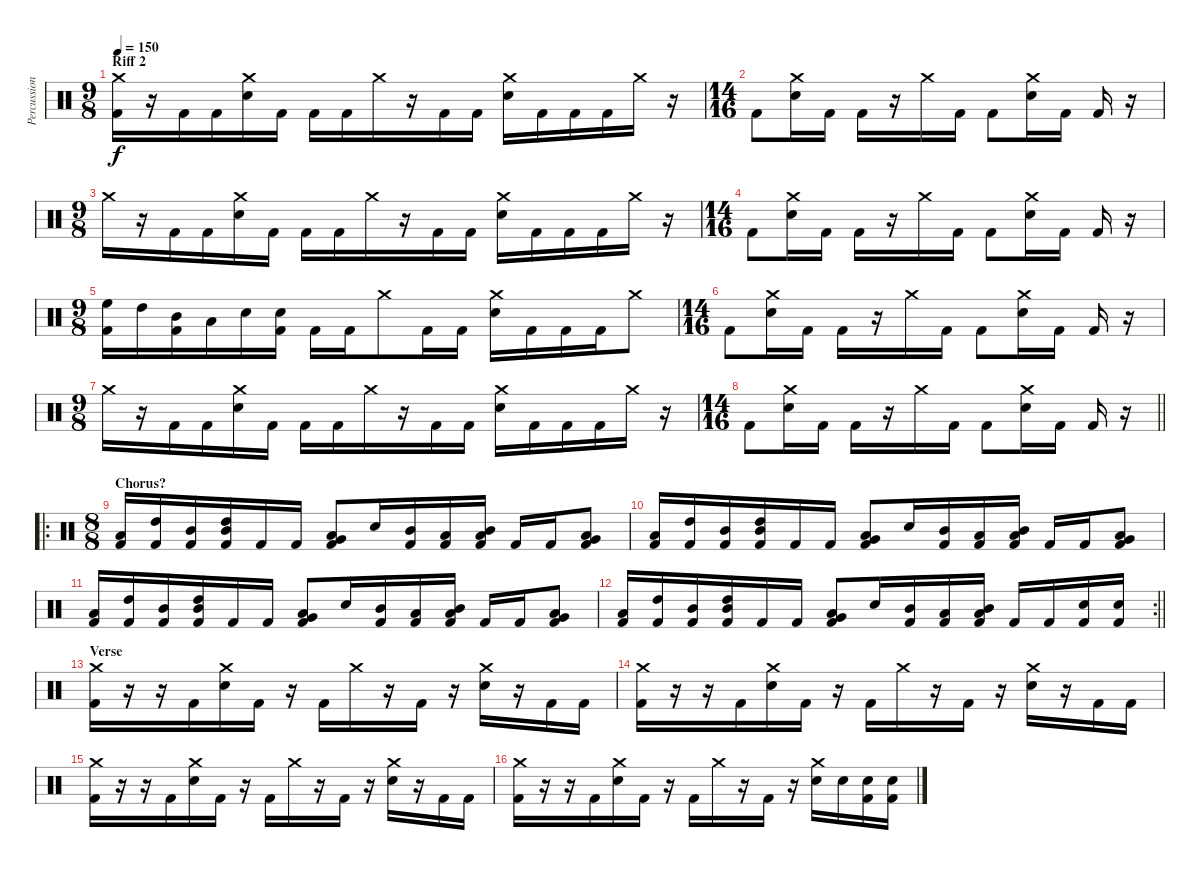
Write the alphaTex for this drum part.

\track ("Percussions" "Percussion") {instrument percussion}
\staff {score}
\articulation defaults
\ts (9 8)
\section ("" "Riff 2")
\tempo 150
\clef neutral
\ks c
("Crash medium (hit)" "Kick (hit) 2").16{dy f} r.16 "Kick (hit) 2".16 "Kick (hit) 2".16 ("Crash medium (hit)" "Electric Snare (hit)").16 "Kick (hit) 2".16 "Kick (hit) 2".16 "Kick (hit) 2".16 "Crash medium (hit)".16 r.16 "Kick (hit) 2".16 "Kick (hit) 2".16 ("Crash medium (hit)" "Electric Snare (hit)").16 "Kick (hit) 2".16 "Kick (hit) 2".16 "Kick (hit) 2".16 "Crash medium (hit)".16 r.16 |
\ts (14 16)
"Kick (hit) 2".8 ("Crash medium (hit)" "Electric Snare (hit)").16 "Kick (hit) 2".16 "Kick (hit) 2".16 r.16 "Crash medium (hit)".16 "Kick (hit) 2".16 "Kick (hit) 2".8 ("Crash medium (hit)" "Electric Snare (hit)").16 "Kick (hit) 2".16 "Kick (hit) 2".16 r.16 |
\ts (9 8)
"Crash medium (hit)".16 r.16 "Kick (hit) 2".16 "Kick (hit) 2".16 ("Crash medium (hit)" "Electric Snare (hit)").16 "Kick (hit) 2".16 "Kick (hit) 2".16 "Kick (hit) 2".16 "Crash medium (hit)".16 r.16 "Kick (hit) 2".16 "Kick (hit) 2".16 ("Crash medium (hit)" "Electric Snare (hit)").16 "Kick (hit) 2".16 "Kick (hit) 2".16 "Kick (hit) 2".16 "Crash medium (hit)".16 r.16 |
\ts (14 16)
"Kick (hit) 2".8 ("Crash medium (hit)" "Electric Snare (hit)").16 "Kick (hit) 2".16 "Kick (hit) 2".16 r.16 "Crash medium (hit)".16 "Kick (hit) 2".16 "Kick (hit) 2".8 ("Crash medium (hit)" "Electric Snare (hit)").16 "Kick (hit) 2".16 "Kick (hit) 2".16 r.16 |
\ts (9 8)
("High Floor Tom (hit)" "Kick (hit) 2").16 "High Tom (hit)".16 ("Mid Tom (hit)" "Kick (hit) 2").16 "Low Tom (hit)".16 "Electric Snare (hit)".16 ("Electric Snare (hit)" "Kick (hit) 2").16 "Kick (hit) 2".16 "Kick (hit) 2".16 "Crash medium (hit)".8 "Kick (hit) 2".16 "Kick (hit) 2".16 ("Crash medium (hit)" "Electric Snare (hit)").16 "Kick (hit) 2".16 "Kick (hit) 2".16 "Kick (hit) 2".16 "Crash medium (hit)".8 |
\ts (14 16)
"Kick (hit) 2".8 ("Crash medium (hit)" "Electric Snare (hit)").16 "Kick (hit) 2".16 "Kick (hit) 2".16 r.16 "Crash medium (hit)".16 "Kick (hit) 2".16 "Kick (hit) 2".8 ("Crash medium (hit)" "Electric Snare (hit)").16 "Kick (hit) 2".16 "Kick (hit) 2".16 r.16 |
\ts (9 8)
"Crash medium (hit)".16 r.16 "Kick (hit) 2".16 "Kick (hit) 2".16 ("Crash medium (hit)" "Electric Snare (hit)").16 "Kick (hit) 2".16 "Kick (hit) 2".16 "Kick (hit) 2".16 "Crash medium (hit)".16 r.16 "Kick (hit) 2".16 "Kick (hit) 2".16 ("Crash medium (hit)" "Electric Snare (hit)").16 "Kick (hit) 2".16 "Kick (hit) 2".16 "Kick (hit) 2".16 "Crash medium (hit)".16 r.16 |
\ts (14 16)
\barLineRight lightlight "Kick (hit) 2".8
("Crash medium (hit)" "Electric Snare (hit)").16 "Kick (hit) 2".16 "Kick (hit) 2".16 r.16 "Crash medium (hit)".16 "Kick (hit) 2".16 "Kick (hit) 2".8 ("Crash medium (hit)" "Electric Snare (hit)").16 "Kick (hit) 2".16 "Kick (hit) 2".16 r.16 |
\ro
\ts (8 8)
\section ("" "Chorus?")
("Low Tom (hit)" "Kick (hit) 2").16 ("High Tom (hit)" "Kick (hit) 2").16 ("Mid Tom (hit)" "Kick (hit) 2").16 ("High Tom (hit)" "Mid Tom (hit)" "Kick (hit) 2").16 "Kick (hit) 2".16 "Kick (hit) 2".16 ("Low Tom (hit)" "Very Low Tom (hit)" "Kick (hit) 2").8 "Electric Snare (hit)".16 ("Mid Tom (hit)" "Kick (hit) 2").16 ("Low Tom (hit)" "Kick (hit) 2").16 ("Mid Tom (hit)" "Low Tom (hit)" "Kick (hit) 2").16 "Kick (hit) 2".16 "Kick (hit) 2".16 ("Low Tom (hit)" "Very Low Tom (hit)" "Kick (hit) 2").8 |
("Low Tom (hit)" "Kick (hit) 2").16 ("High Tom (hit)" "Kick (hit) 2").16 ("Mid Tom (hit)" "Kick (hit) 2").16 ("High Tom (hit)" "Mid Tom (hit)" "Kick (hit) 2").16 "Kick (hit) 2".16 "Kick (hit) 2".16 ("Low Tom (hit)" "Very Low Tom (hit)" "Kick (hit) 2").8 "Electric Snare (hit)".16 ("Mid Tom (hit)" "Kick (hit) 2").16 ("Low Tom (hit)" "Kick (hit) 2").16 ("Mid Tom (hit)" "Low Tom (hit)" "Kick (hit) 2").16 "Kick (hit) 2".16 "Kick (hit) 2".16 ("Low Tom (hit)" "Very Low Tom (hit)" "Kick (hit) 2").8 |
("Low Tom (hit)" "Kick (hit) 2").16 ("High Tom (hit)" "Kick (hit) 2").16 ("Mid Tom (hit)" "Kick (hit) 2").16 ("High Tom (hit)" "Mid Tom (hit)" "Kick (hit) 2").16 "Kick (hit) 2".16 "Kick (hit) 2".16 ("Low Tom (hit)" "Very Low Tom (hit)" "Kick (hit) 2").8 "Electric Snare (hit)".16 ("Mid Tom (hit)" "Kick (hit) 2").16 ("Low Tom (hit)" "Kick (hit) 2").16 ("Mid Tom (hit)" "Low Tom (hit)" "Kick (hit) 2").16 "Kick (hit) 2".16 "Kick (hit) 2".16 ("Low Tom (hit)" "Very Low Tom (hit)" "Kick (hit) 2").8 |
\rc 2
\barLineRight lightlight
("Low Tom (hit)" "Kick (hit) 2").16 ("High Tom (hit)" "Kick (hit) 2").16 ("Mid Tom (hit)" "Kick (hit) 2").16 ("High Tom (hit)" "Mid Tom (hit)" "Kick (hit) 2").16 "Kick (hit) 2".16 "Kick (hit) 2".16 ("Low Tom (hit)" "Very Low Tom (hit)" "Kick (hit) 2").8 "Electric Snare (hit)".16 ("Mid Tom (hit)" "Kick (hit) 2").16 ("Low Tom (hit)" "Kick (hit) 2").16 ("Mid Tom (hit)" "Low Tom (hit)" "Kick (hit) 2").16 "Kick (hit) 2".16 "Kick (hit) 2".16 ("Electric Snare (hit)" "Kick (hit) 2").16 ("Electric Snare (hit)" "Kick (hit) 2").16 |
\section ("" "Verse")
("Crash medium (hit)" "Kick (hit) 2").16 r.16 r.16 "Kick (hit) 2".16 ("Crash medium (hit)" "Electric Snare (hit)").16 "Kick (hit) 2".16 r.16 "Kick (hit) 2".16 "Crash medium (hit)".16 r.16 "Kick (hit) 2".16 r.16 ("Crash medium (hit)" "Electric Snare (hit)").16 r.16 "Kick (hit) 2".16 "Kick (hit) 2".16 |
("Crash medium (hit)" "Kick (hit) 2").16 r.16 r.16 "Kick (hit) 2".16 ("Crash medium (hit)" "Electric Snare (hit)").16 "Kick (hit) 2".16 r.16 "Kick (hit) 2".16 "Crash medium (hit)".16 r.16 "Kick (hit) 2".16 r.16 ("Crash medium (hit)" "Electric Snare (hit)").16 r.16 "Kick (hit) 2".16 "Kick (hit) 2".16 |
("Crash medium (hit)" "Kick (hit) 2").16 r.16 r.16 "Kick (hit) 2".16 ("Crash medium (hit)" "Electric Snare (hit)").16 "Kick (hit) 2".16 r.16 "Kick (hit) 2".16 "Crash medium (hit)".16 r.16 "Kick (hit) 2".16 r.16 ("Crash medium (hit)" "Electric Snare (hit)").16 r.16 "Kick (hit) 2".16 "Kick (hit) 2".16 |
("Crash medium (hit)" "Kick (hit) 2").16 r.16 r.16 "Kick (hit) 2".16 ("Crash medium (hit)" "Electric Snare (hit)").16 "Kick (hit) 2".16 r.16 "Kick (hit) 2".16 "Crash medium (hit)".16 r.16 "Kick (hit) 2".16 r.16 ("Crash medium (hit)" "Electric Snare (hit)").16 "Electric Snare (hit)".16 ("Electric Snare (hit)" "Kick (hit) 2").16 ("Electric Snare (hit)" "Kick (hit) 2").16
